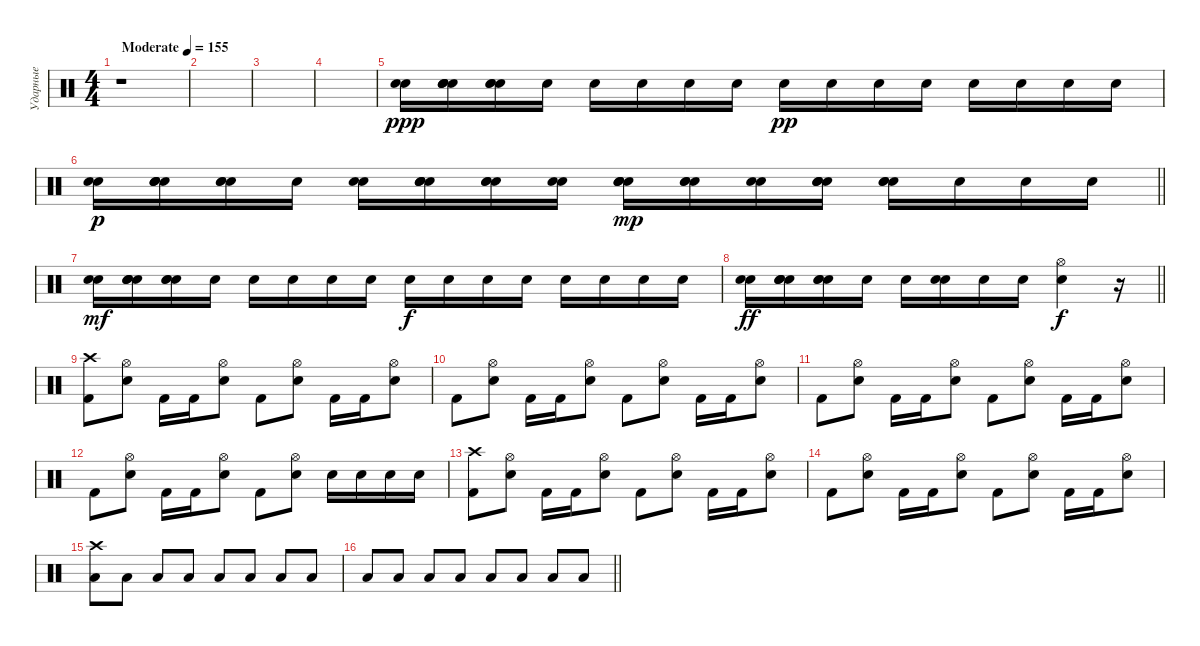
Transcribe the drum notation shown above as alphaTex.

\track ("Ударные" "Ударные") {instrument percussion}
\staff {score}
\articulation defaults
\ts (4 4)
\tempo (155 "Moderate")
\clef neutral
\ks c
r.1{dy ppp} |
|
|
|
("Snare (hit) 2" "Snare (hit) 2").16 ("Snare (hit) 2" "Snare (hit) 2" "Snare (hit) 2" "Snare (hit) 2").16 ("Snare (hit) 2" "Snare (hit) 2" "Snare (hit) 2").16 "Snare (hit) 2".16 "Snare (hit) 2".16 "Snare (hit) 2".16 "Snare (hit) 2".16 "Snare (hit) 2".16 "Snare (hit) 2".16{dy pp} "Snare (hit) 2".16 "Snare (hit) 2".16 "Snare (hit) 2".16 "Snare (hit) 2".16 "Snare (hit) 2".16 "Snare (hit) 2".16 "Snare (hit) 2".16 |
\barLineRight lightlight
("Snare (hit) 2" "Snare (hit) 2").16{dy p} ("Snare (hit) 2" "Snare (hit) 2" "Snare (hit) 2" "Snare (hit) 2").16 ("Snare (hit) 2" "Snare (hit) 2" "Snare (hit) 2").16 "Snare (hit) 2".16 ("Snare (hit) 2" "Snare (hit) 2").16 ("Snare (hit) 2" "Snare (hit) 2" "Snare (hit) 2" "Snare (hit) 2").16 ("Snare (hit) 2" "Snare (hit) 2" "Snare (hit) 2").16 ("Snare (hit) 2" "Snare (hit) 2").16 ("Snare (hit) 2" "Snare (hit) 2" "Snare (hit) 2" "Snare (hit) 2").16{dy mp} ("Snare (hit) 2" "Snare (hit) 2" "Snare (hit) 2").16 ("Snare (hit) 2" "Snare (hit) 2").16 ("Snare (hit) 2" "Snare (hit) 2" "Snare (hit) 2" "Snare (hit) 2").16 ("Snare (hit) 2" "Snare (hit) 2" "Snare (hit) 2").16 "Snare (hit) 2".16 "Snare (hit) 2".16 "Snare (hit) 2".16 |
("Snare (hit) 2" "Snare (hit) 2").16{dy mf} ("Snare (hit) 2" "Snare (hit) 2" "Snare (hit) 2" "Snare (hit) 2").16 ("Snare (hit) 2" "Snare (hit) 2" "Snare (hit) 2").16 "Snare (hit) 2".16 "Snare (hit) 2".16 "Snare (hit) 2".16 "Snare (hit) 2".16 "Snare (hit) 2".16 "Snare (hit) 2".16{dy f} "Snare (hit) 2".16 "Snare (hit) 2".16 "Snare (hit) 2".16 "Snare (hit) 2".16 "Snare (hit) 2".16 "Snare (hit) 2".16 "Snare (hit) 2".16 |
\barLineRight lightlight
("Snare (hit) 2" "Snare (hit) 2").16{dy ff} ("Snare (hit) 2" "Snare (hit) 2" "Snare (hit) 2" "Snare (hit) 2").16 ("Snare (hit) 2" "Snare (hit) 2" "Snare (hit) 2").16 "Snare (hit) 2".16 "Snare (hit) 2".16 ("Snare (hit) 2" "Snare (hit) 2").16 "Snare (hit) 2".16 "Snare (hit) 2".16 ("Snare (hit) 2" "Hi-Hat (open)").4{dy f} r.16 |
("Kick (hit) 2" "Crash high (hit)").8 ("Electric Snare (hit)" "Hi-Hat (open)").8 "Kick (hit) 2".16 "Kick (hit) 2".16 ("Electric Snare (hit)" "Hi-Hat (open)").8 "Kick (hit) 2".8 ("Electric Snare (hit)" "Hi-Hat (open)").8 "Kick (hit) 2".16 "Kick (hit) 2".16 ("Electric Snare (hit)" "Hi-Hat (open)").8 |
"Kick (hit) 2".8 ("Electric Snare (hit)" "Hi-Hat (open)").8 "Kick (hit) 2".16 "Kick (hit) 2".16 ("Electric Snare (hit)" "Hi-Hat (open)").8 "Kick (hit) 2".8 ("Electric Snare (hit)" "Hi-Hat (open)").8 "Kick (hit) 2".16 "Kick (hit) 2".16 ("Electric Snare (hit)" "Hi-Hat (open)").8 |
"Kick (hit) 2".8 ("Electric Snare (hit)" "Hi-Hat (open)").8 "Kick (hit) 2".16 "Kick (hit) 2".16 ("Electric Snare (hit)" "Hi-Hat (open)").8 "Kick (hit) 2".8 ("Electric Snare (hit)" "Hi-Hat (open)").8 "Kick (hit) 2".16 "Kick (hit) 2".16 ("Electric Snare (hit)" "Hi-Hat (open)").8 |
"Kick (hit) 2".8 ("Electric Snare (hit)" "Hi-Hat (open)").8 "Kick (hit) 2".16 "Kick (hit) 2".16 ("Electric Snare (hit)" "Hi-Hat (open)").8 "Kick (hit) 2".8 ("Electric Snare (hit)" "Hi-Hat (open)").8 "Electric Snare (hit)".16 "Electric Snare (hit)".16 "Electric Snare (hit)".16 "Electric Snare (hit)".16 |
("Kick (hit) 2" "Crash high (hit)").8 ("Electric Snare (hit)" "Hi-Hat (open)").8 "Kick (hit) 2".16 "Kick (hit) 2".16 ("Electric Snare (hit)" "Hi-Hat (open)").8 "Kick (hit) 2".8 ("Electric Snare (hit)" "Hi-Hat (open)").8 "Kick (hit) 2".16 "Kick (hit) 2".16 ("Electric Snare (hit)" "Hi-Hat (open)").8 |
"Kick (hit) 2".8 ("Electric Snare (hit)" "Hi-Hat (open)").8 "Kick (hit) 2".16 "Kick (hit) 2".16 ("Electric Snare (hit)" "Hi-Hat (open)").8 "Kick (hit) 2".8 ("Electric Snare (hit)" "Hi-Hat (open)").8 "Kick (hit) 2".16 "Kick (hit) 2".16 ("Electric Snare (hit)" "Hi-Hat (open)").8 |
("Low Floor Tom (hit)" "Crash high (hit)").8 "Low Floor Tom (hit)".8 "Low Floor Tom (hit)".8 "Low Floor Tom (hit)".8 "Low Floor Tom (hit)".8 "Low Floor Tom (hit)".8 "Low Floor Tom (hit)".8 "Low Floor Tom (hit)".8 |
\barLineRight lightlight "Low Floor Tom (hit)".8 "Low Floor Tom (hit)".8 "Low Floor Tom (hit)".8 "Low Floor Tom (hit)".8 "Low Floor Tom (hit)".8 "Low Floor Tom (hit)".8 "Low Floor Tom (hit)".8 "Low Floor Tom (hit)".8
